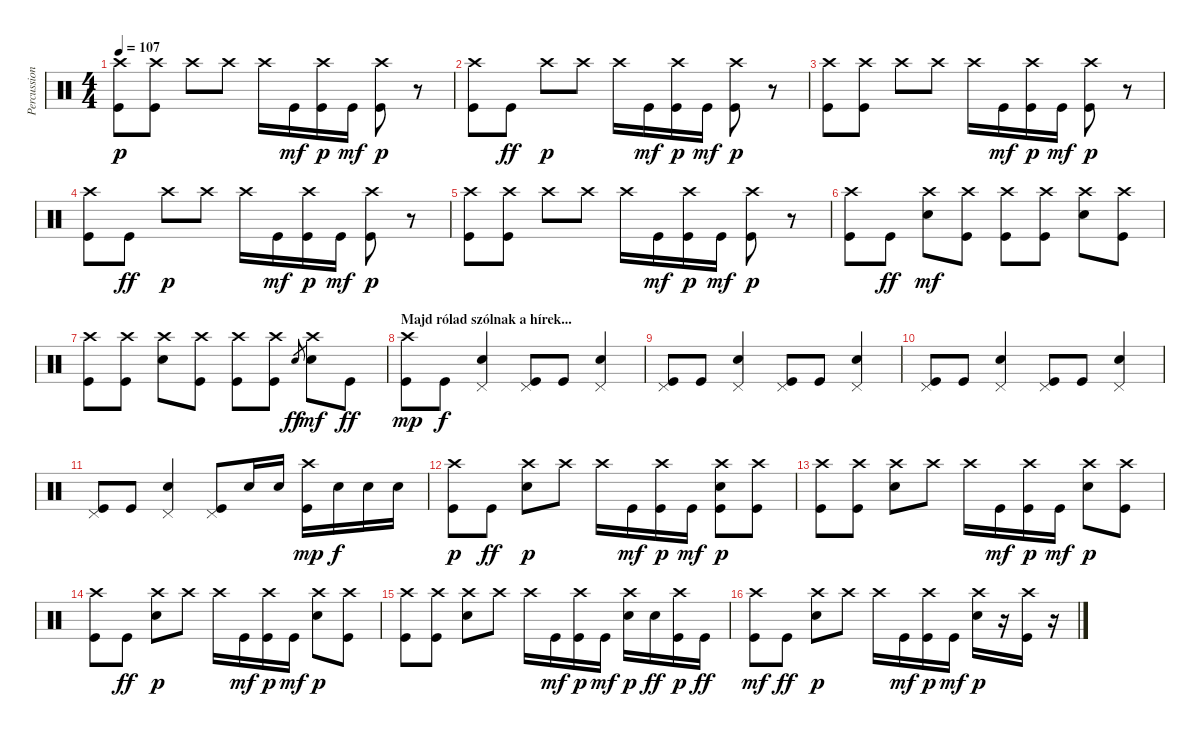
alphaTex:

\track ("Percussion" "Percussion") {instrument percussion}
\staff {score}
\articulation defaults
\ts (4 4)
\tempo 107
\clef neutral
\ks c
("Kick (hit)" "Crash high (hit)").8{dy p} ("Kick (hit)" "Crash high (hit)").8 "Crash high (hit)".8 "Crash high (hit)".8 "Crash high (hit)".16 "Kick (hit)".16{dy mf} ("Kick (hit)" "Crash high (hit)").16{dy p} "Kick (hit)".16{dy mf} ("Kick (hit)" "Crash high (hit)").8{dy p} r.8 |
("Kick (hit)" "Crash high (hit)").8 "Kick (hit)".8{dy ff} "Crash high (hit)".8{dy p} "Crash high (hit)".8 "Crash high (hit)".16 "Kick (hit)".16{dy mf} ("Kick (hit)" "Crash high (hit)").16{dy p} "Kick (hit)".16{dy mf} ("Kick (hit)" "Crash high (hit)").8{dy p} r.8 |
("Kick (hit)" "Crash high (hit)").8 ("Kick (hit)" "Crash high (hit)").8 "Crash high (hit)".8 "Crash high (hit)".8 "Crash high (hit)".16 "Kick (hit)".16{dy mf} ("Kick (hit)" "Crash high (hit)").16{dy p} "Kick (hit)".16{dy mf} ("Kick (hit)" "Crash high (hit)").8{dy p} r.8 |
("Kick (hit)" "Crash high (hit)").8 "Kick (hit)".8{dy ff} "Crash high (hit)".8{dy p} "Crash high (hit)".8 "Crash high (hit)".16 "Kick (hit)".16{dy mf} ("Kick (hit)" "Crash high (hit)").16{dy p} "Kick (hit)".16{dy mf} ("Kick (hit)" "Crash high (hit)").8{dy p} r.8 |
("Kick (hit)" "Crash high (hit)").8 ("Kick (hit)" "Crash high (hit)").8 "Crash high (hit)".8 "Crash high (hit)".8 "Crash high (hit)".16 "Kick (hit)".16{dy mf} ("Kick (hit)" "Crash high (hit)").16{dy p} "Kick (hit)".16{dy mf} ("Kick (hit)" "Crash high (hit)").8{dy p} r.8 |
("Kick (hit)" "Crash high (hit)").8 "Kick (hit)".8{dy ff} ("Electric Snare (hit)" "Crash high (hit)").8{dy mf} ("Kick (hit)" "Crash high (hit)").8 ("Kick (hit)" "Crash high (hit)").8 ("Kick (hit)" "Crash high (hit)").8 ("Electric Snare (hit)" "Crash high (hit)").8 ("Kick (hit)" "Crash high (hit)").8 |
("Kick (hit)" "Crash high (hit)").8 ("Kick (hit)" "Crash high (hit)").8 ("Electric Snare (hit)" "Crash high (hit)").8 ("Kick (hit)" "Crash high (hit)").8 ("Kick (hit)" "Crash high (hit)").8 ("Kick (hit)" "Crash high (hit)").8 "Electric Snare (hit)".8{gr dy ff} ("Electric Snare (hit)" "Crash high (hit)").8{dy mf} "Kick (hit)".8{dy ff} |
\section ("" "Majd rólad szólnak a hírek...")
("Kick (hit)" "Crash high (hit)").8{dy mp} "Kick (hit)".8{dy f} ("Electric Snare (hit)" "Pedal Hi-Hat (hit)").4 ("Kick (hit)" "Pedal Hi-Hat (hit)").8 "Kick (hit)".8 ("Electric Snare (hit)" "Pedal Hi-Hat (hit)").4 |
("Kick (hit)" "Pedal Hi-Hat (hit)").8 "Kick (hit)".8 ("Electric Snare (hit)" "Pedal Hi-Hat (hit)").4 ("Kick (hit)" "Pedal Hi-Hat (hit)").8 "Kick (hit)".8 ("Electric Snare (hit)" "Pedal Hi-Hat (hit)").4 |
("Kick (hit)" "Pedal Hi-Hat (hit)").8 "Kick (hit)".8 ("Electric Snare (hit)" "Pedal Hi-Hat (hit)").4 ("Kick (hit)" "Pedal Hi-Hat (hit)").8 "Kick (hit)".8 ("Electric Snare (hit)" "Pedal Hi-Hat (hit)").4 |
("Kick (hit)" "Pedal Hi-Hat (hit)").8 "Kick (hit)".8 ("Electric Snare (hit)" "Pedal Hi-Hat (hit)").4 ("Kick (hit)" "Pedal Hi-Hat (hit)").8 "Electric Snare (hit)".16 "Electric Snare (hit)".16 ("Kick (hit)" "Crash high (hit)").16{dy mp} "Electric Snare (hit)".16{dy f} "Electric Snare (hit)".16 "Electric Snare (hit)".16 |
("Kick (hit)" "Crash high (hit)").8{dy p} "Kick (hit)".8{dy ff} ("Electric Snare (hit)" "Crash high (hit)").8{dy p} "Crash high (hit)".8 "Crash high (hit)".16 "Kick (hit)".16{dy mf} ("Kick (hit)" "Crash high (hit)").16{dy p} "Kick (hit)".16{dy mf} ("Electric Snare (hit)" "Kick (hit)" "Crash high (hit)").8{dy p} ("Kick (hit)" "Crash high (hit)").8 |
("Kick (hit)" "Crash high (hit)").8 ("Kick (hit)" "Crash high (hit)").8 ("Electric Snare (hit)" "Crash high (hit)").8 "Crash high (hit)".8 "Crash high (hit)".16 "Kick (hit)".16{dy mf} ("Kick (hit)" "Crash high (hit)").16{dy p} "Kick (hit)".16{dy mf} ("Electric Snare (hit)" "Crash high (hit)").8{dy p} ("Kick (hit)" "Crash high (hit)").8 |
("Kick (hit)" "Crash high (hit)").8 "Kick (hit)".8{dy ff} ("Electric Snare (hit)" "Crash high (hit)").8{dy p} "Crash high (hit)".8 "Crash high (hit)".16 "Kick (hit)".16{dy mf} ("Kick (hit)" "Crash high (hit)").16{dy p} "Kick (hit)".16{dy mf} ("Electric Snare (hit)" "Crash high (hit)").8{dy p} ("Kick (hit)" "Crash high (hit)").8 |
("Kick (hit)" "Crash high (hit)").8 ("Kick (hit)" "Crash high (hit)").8 ("Electric Snare (hit)" "Crash high (hit)").8 "Crash high (hit)".8 "Crash high (hit)".16 "Kick (hit)".16{dy mf} ("Kick (hit)" "Crash high (hit)").16{dy p} "Kick (hit)".16{dy mf} ("Electric Snare (hit)" "Crash high (hit)").16{dy p} "Electric Snare (hit)".16{dy ff} ("Kick (hit)" "Crash high (hit)").16{dy p} "Kick (hit)".16{dy ff} |
("Kick (hit)" "Crash high (hit)").8{dy mf} "Kick (hit)".8{dy ff} ("Electric Snare (hit)" "Crash high (hit)").8{dy p} "Crash high (hit)".8 "Crash high (hit)".16 "Kick (hit)".16{dy mf} ("Kick (hit)" "Crash high (hit)").16{dy p} "Kick (hit)".16{dy mf} ("Electric Snare (hit)" "Crash high (hit)").16{dy p} r.16 ("Kick (hit)" "Crash high (hit)").16 r.16
